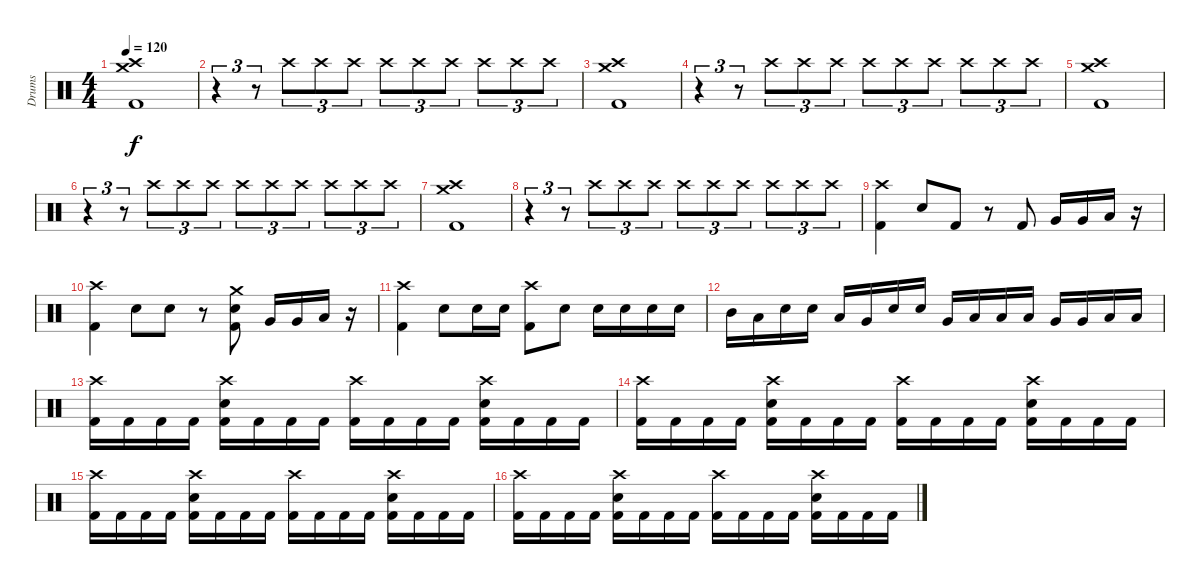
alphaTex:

\track ("Drums" "Drums") {instrument percussion}
\staff {score}
\articulation defaults
\ts (4 4)
\tempo 120
\clef neutral
\ks c
("Crash high (hit)" "Crash medium (hit)" "Kick (hit) 2").1{dy f} |
r.4{tu (3 2)} r.8{tu (3 2)} "Crash high (hit)".8{tu (3 2)} "Crash high (hit)".8{tu (3 2)} "Crash high (hit)".8{tu (3 2)} "Crash high (hit)".8{tu (3 2)} "Crash high (hit)".8{tu (3 2)} "Crash high (hit)".8{tu (3 2)} "Crash high (hit)".8{tu (3 2)} "Crash high (hit)".8{tu (3 2)} "Crash high (hit)".8{tu (3 2)} |
("Crash high (hit)" "Crash medium (hit)" "Kick (hit) 2").1 |
r.4{tu (3 2)} r.8{tu (3 2)} "Crash high (hit)".8{tu (3 2)} "Crash high (hit)".8{tu (3 2)} "Crash high (hit)".8{tu (3 2)} "Crash high (hit)".8{tu (3 2)} "Crash high (hit)".8{tu (3 2)} "Crash high (hit)".8{tu (3 2)} "Crash high (hit)".8{tu (3 2)} "Crash high (hit)".8{tu (3 2)} "Crash high (hit)".8{tu (3 2)} |
("Crash high (hit)" "Crash medium (hit)" "Kick (hit) 2").1 |
r.4{tu (3 2)} r.8{tu (3 2)} "Crash high (hit)".8{tu (3 2)} "Crash high (hit)".8{tu (3 2)} "Crash high (hit)".8{tu (3 2)} "Crash high (hit)".8{tu (3 2)} "Crash high (hit)".8{tu (3 2)} "Crash high (hit)".8{tu (3 2)} "Crash high (hit)".8{tu (3 2)} "Crash high (hit)".8{tu (3 2)} "Crash high (hit)".8{tu (3 2)} |
("Crash high (hit)" "Crash medium (hit)" "Kick (hit) 2").1 |
r.4{tu (3 2)} r.8{tu (3 2)} "Crash high (hit)".8{tu (3 2)} "Crash high (hit)".8{tu (3 2)} "Crash high (hit)".8{tu (3 2)} "Crash high (hit)".8{tu (3 2)} "Crash high (hit)".8{tu (3 2)} "Crash high (hit)".8{tu (3 2)} "Crash high (hit)".8{tu (3 2)} "Crash high (hit)".8{tu (3 2)} "Crash high (hit)".8{tu (3 2)} |
("Crash high (hit)" "Kick (hit) 2").4 "Snare (hit) 2".8 "Kick (hit) 2".8 r.8 "Kick (hit) 2".8 "Very Low Tom (hit)".16 "Very Low Tom (hit)".16 "Low Floor Tom (hit)".16 r.16 |
("Crash high (hit)" "Kick (hit) 2").4 "Snare (hit) 2".8 "Snare (hit) 2".8 r.8 ("Crash medium (hit)" "Snare (hit) 2" "Kick (hit) 2").8 "Very Low Tom (hit)".16 "Very Low Tom (hit)".16 "Low Floor Tom (hit)".16 r.16 |
("Crash high (hit)" "Kick (hit) 2").4 "Snare (hit) 2".8 "Snare (hit) 2".16 "Snare (hit) 2".16 ("Crash high (hit)" "Kick (hit) 2").8 "Snare (hit) 2".8 "Snare (hit) 2".16 "Snare (hit) 2".16 "Snare (hit) 2".16 "Snare (hit) 2".16 |
"Mid Tom (hit)".16 "Low Tom (hit)".16 "Snare (hit) 2".16 "Snare (hit) 2".16 "Low Tom (hit)".16 "Very Low Tom (hit)".16 "Snare (hit) 2".16 "Snare (hit) 2".16 "Very Low Tom (hit)".16 "Low Floor Tom (hit)".16 "Low Tom (hit)".16 "Low Tom (hit)".16 "Very Low Tom (hit)".16 "Very Low Tom (hit)".16 "Low Floor Tom (hit)".16 "Low Floor Tom (hit)".16 |
("Crash high (hit)" "Kick (hit) 2").16 "Kick (hit) 2".16 "Kick (hit) 2".16 "Kick (hit) 2".16 ("Crash high (hit)" "Snare (hit) 2" "Kick (hit) 2").16 "Kick (hit) 2".16 "Kick (hit) 2".16 "Kick (hit) 2".16 ("Crash high (hit)" "Kick (hit) 2").16 "Kick (hit) 2".16 "Kick (hit) 2".16 "Kick (hit) 2".16 ("Crash high (hit)" "Snare (hit) 2" "Kick (hit) 2").16 "Kick (hit) 2".16 "Kick (hit) 2".16 "Kick (hit) 2".16 |
("Crash high (hit)" "Kick (hit) 2").16 "Kick (hit) 2".16 "Kick (hit) 2".16 "Kick (hit) 2".16 ("Crash high (hit)" "Snare (hit) 2" "Kick (hit) 2").16 "Kick (hit) 2".16 "Kick (hit) 2".16 "Kick (hit) 2".16 ("Crash high (hit)" "Kick (hit) 2").16 "Kick (hit) 2".16 "Kick (hit) 2".16 "Kick (hit) 2".16 ("Crash high (hit)" "Snare (hit) 2" "Kick (hit) 2").16 "Kick (hit) 2".16 "Kick (hit) 2".16 "Kick (hit) 2".16 |
("Crash high (hit)" "Kick (hit) 2").16 "Kick (hit) 2".16 "Kick (hit) 2".16 "Kick (hit) 2".16 ("Crash high (hit)" "Snare (hit) 2" "Kick (hit) 2").16 "Kick (hit) 2".16 "Kick (hit) 2".16 "Kick (hit) 2".16 ("Crash high (hit)" "Kick (hit) 2").16 "Kick (hit) 2".16 "Kick (hit) 2".16 "Kick (hit) 2".16 ("Crash high (hit)" "Snare (hit) 2" "Kick (hit) 2").16 "Kick (hit) 2".16 "Kick (hit) 2".16 "Kick (hit) 2".16 |
("Crash high (hit)" "Kick (hit) 2").16 "Kick (hit) 2".16 "Kick (hit) 2".16 "Kick (hit) 2".16 ("Crash high (hit)" "Snare (hit) 2" "Kick (hit) 2").16 "Kick (hit) 2".16 "Kick (hit) 2".16 "Kick (hit) 2".16 ("Crash high (hit)" "Kick (hit) 2").16 "Kick (hit) 2".16 "Kick (hit) 2".16 "Kick (hit) 2".16 ("Crash high (hit)" "Snare (hit) 2" "Kick (hit) 2").16 "Kick (hit) 2".16 "Kick (hit) 2".16 "Kick (hit) 2".16
